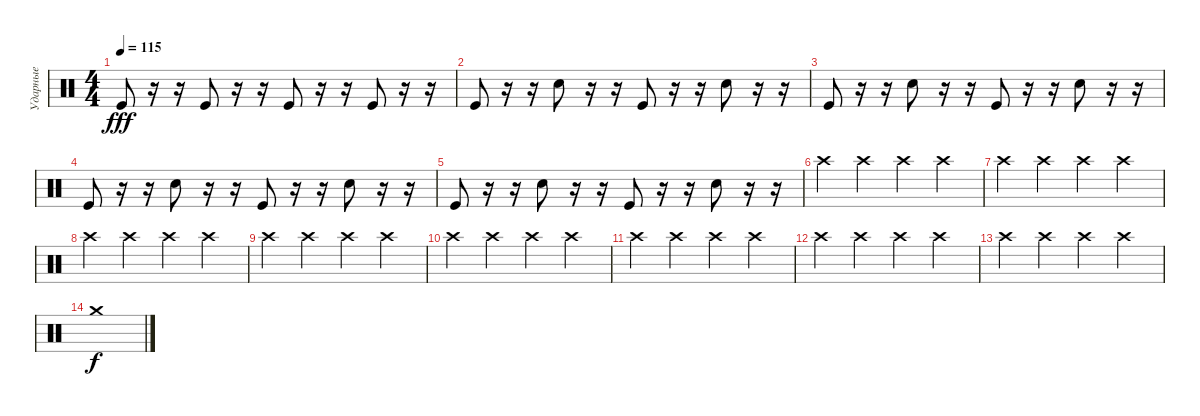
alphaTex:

\track ("Ударные" "Ударные") {instrument percussion}
\staff {score}
\articulation defaults
\ts (4 4)
\tempo 115
\clef neutral
\ks c "Kick (hit)".8{dy fff}
r.16 r.16 "Kick (hit)".8 r.16 r.16 "Kick (hit)".8 r.16 r.16 "Kick (hit)".8 r.16 r.16 |
"Kick (hit)".8 r.16 r.16 "Electric Snare (hit)".8 r.16 r.16 "Kick (hit)".8 r.16 r.16 "Electric Snare (hit)".8 r.16 r.16 |
"Kick (hit)".8 r.16 r.16 "Electric Snare (hit)".8 r.16 r.16 "Kick (hit)".8 r.16 r.16 "Electric Snare (hit)".8 r.16 r.16 |
"Kick (hit)".8 r.16 r.16 "Electric Snare (hit)".8 r.16 r.16 "Kick (hit)".8 r.16 r.16 "Electric Snare (hit)".8 r.16 r.16 |
"Kick (hit)".8 r.16 r.16 "Electric Snare (hit)".8 r.16 r.16 "Kick (hit)".8 r.16 r.16 "Electric Snare (hit)".8 r.16 r.16 |
"Crash high (hit)".4 "Crash high (hit)".4 "Crash high (hit)".4 "Crash high (hit)".4 |
"Crash high (hit)".4 "Crash high (hit)".4 "Crash high (hit)".4 "Crash high (hit)".4 |
"Crash high (hit)".4 "Crash high (hit)".4 "Crash high (hit)".4 "Crash high (hit)".4 |
"Crash high (hit)".4 "Crash high (hit)".4 "Crash high (hit)".4 "Crash high (hit)".4 |
"Crash high (hit)".4 "Crash high (hit)".4 "Crash high (hit)".4 "Crash high (hit)".4 |
"Crash high (hit)".4 "Crash high (hit)".4 "Crash high (hit)".4 "Crash high (hit)".4 |
"Crash high (hit)".4 "Crash high (hit)".4 "Crash high (hit)".4 "Crash high (hit)".4 |
"Crash high (hit)".4 "Crash high (hit)".4 "Crash high (hit)".4 "Crash high (hit)".4 |
"Crash medium (hit)".1{dy f}
